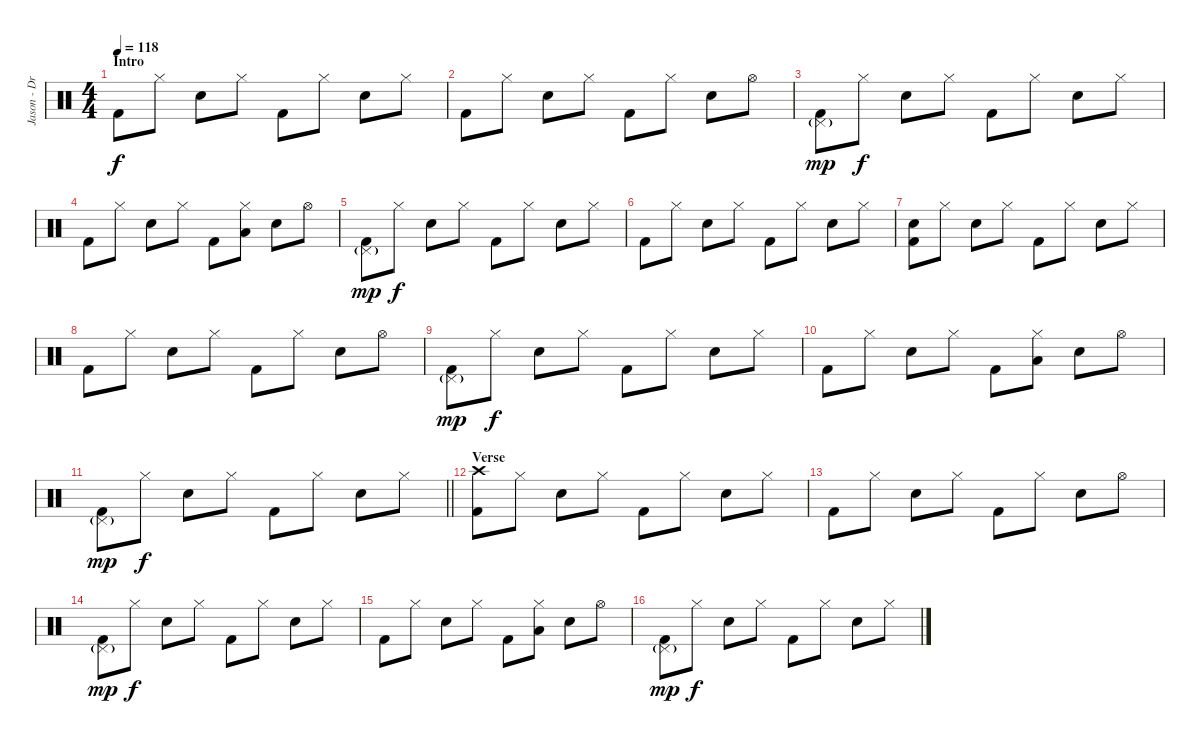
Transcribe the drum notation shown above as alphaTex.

\track ("Jason - Drums" "Jason - Dr") {instrument percussion}
\staff {score}
\articulation defaults
\ts (4 4)
\section ("" "Intro")
\tempo 118
\clef neutral
\ks c "Kick (hit) 2".8{dy f} "Hi-Hat (closed)".8 "Electric Snare (hit)".8 "Hi-Hat (closed)".8 "Kick (hit) 2".8 "Hi-Hat (closed)".8 "Electric Snare (hit)".8 "Hi-Hat (closed)".8
|
"Kick (hit) 2".8 "Hi-Hat (closed)".8 "Electric Snare (hit)".8 "Hi-Hat (closed)".8 "Kick (hit) 2".8 "Hi-Hat (closed)".8 "Electric Snare (hit)".8 "Hi-Hat (open)".8 |
("Pedal Hi-Hat (hit)"{g} "Kick (hit) 2").8{dy mp} "Hi-Hat (closed)".8{dy f} "Electric Snare (hit)".8 "Hi-Hat (closed)".8 "Kick (hit) 2".8 "Hi-Hat (closed)".8 "Electric Snare (hit)".8 "Hi-Hat (closed)".8 |
"Kick (hit) 2".8 "Hi-Hat (closed)".8 "Electric Snare (hit)".8 "Hi-Hat (closed)".8 "Kick (hit) 2".8 ("Hi-Hat (closed)" "Low Floor Tom (hit)").8 "Electric Snare (hit)".8 "Hi-Hat (open)".8 |
("Pedal Hi-Hat (hit)"{g} "Kick (hit) 2").8{dy mp} "Hi-Hat (closed)".8{dy f} "Electric Snare (hit)".8 "Hi-Hat (closed)".8 "Kick (hit) 2".8 "Hi-Hat (closed)".8 "Electric Snare (hit)".8 "Hi-Hat (closed)".8 |
"Kick (hit) 2".8 "Hi-Hat (closed)".8 "Electric Snare (hit)".8 "Hi-Hat (closed)".8 "Kick (hit) 2".8 "Hi-Hat (closed)".8 "Electric Snare (hit)".8 "Hi-Hat (closed)".8 |
("Electric Snare (hit)" "Kick (hit) 2").8 "Hi-Hat (closed)".8 "Electric Snare (hit)".8 "Hi-Hat (closed)".8 "Kick (hit) 2".8 "Hi-Hat (closed)".8 "Electric Snare (hit)".8 "Hi-Hat (closed)".8 |
"Kick (hit) 2".8 "Hi-Hat (closed)".8 "Electric Snare (hit)".8 "Hi-Hat (closed)".8 "Kick (hit) 2".8 "Hi-Hat (closed)".8 "Electric Snare (hit)".8 "Hi-Hat (open)".8 |
("Pedal Hi-Hat (hit)"{g} "Kick (hit) 2").8{dy mp} "Hi-Hat (closed)".8{dy f} "Electric Snare (hit)".8 "Hi-Hat (closed)".8 "Kick (hit) 2".8 "Hi-Hat (closed)".8 "Electric Snare (hit)".8 "Hi-Hat (closed)".8 |
"Kick (hit) 2".8 "Hi-Hat (closed)".8 "Electric Snare (hit)".8 "Hi-Hat (closed)".8 "Kick (hit) 2".8 ("Hi-Hat (closed)" "Low Floor Tom (hit)").8 "Electric Snare (hit)".8 "Hi-Hat (open)".8 |
\barLineRight lightlight
("Pedal Hi-Hat (hit)"{g} "Kick (hit) 2").8{dy mp} "Hi-Hat (closed)".8{dy f} "Electric Snare (hit)".8 "Hi-Hat (closed)".8 "Kick (hit) 2".8 "Hi-Hat (closed)".8 "Electric Snare (hit)".8 "Hi-Hat (closed)".8 |
\section ("" "Verse")
("Crash high (hit)" "Kick (hit) 2").8 "Hi-Hat (closed)".8 "Electric Snare (hit)".8 "Hi-Hat (closed)".8 "Kick (hit) 2".8 "Hi-Hat (closed)".8 "Electric Snare (hit)".8 "Hi-Hat (closed)".8 |
"Kick (hit) 2".8 "Hi-Hat (closed)".8 "Electric Snare (hit)".8 "Hi-Hat (closed)".8 "Kick (hit) 2".8 "Hi-Hat (closed)".8 "Electric Snare (hit)".8 "Hi-Hat (open)".8 |
("Pedal Hi-Hat (hit)"{g} "Kick (hit) 2").8{dy mp} "Hi-Hat (closed)".8{dy f} "Electric Snare (hit)".8 "Hi-Hat (closed)".8 "Kick (hit) 2".8 "Hi-Hat (closed)".8 "Electric Snare (hit)".8 "Hi-Hat (closed)".8 |
"Kick (hit) 2".8 "Hi-Hat (closed)".8 "Electric Snare (hit)".8 "Hi-Hat (closed)".8 "Kick (hit) 2".8 ("Hi-Hat (closed)" "Low Floor Tom (hit)").8 "Electric Snare (hit)".8 "Hi-Hat (open)".8 |
("Pedal Hi-Hat (hit)"{g} "Kick (hit) 2").8{dy mp} "Hi-Hat (closed)".8{dy f} "Electric Snare (hit)".8 "Hi-Hat (closed)".8 "Kick (hit) 2".8 "Hi-Hat (closed)".8 "Electric Snare (hit)".8 "Hi-Hat (closed)".8
